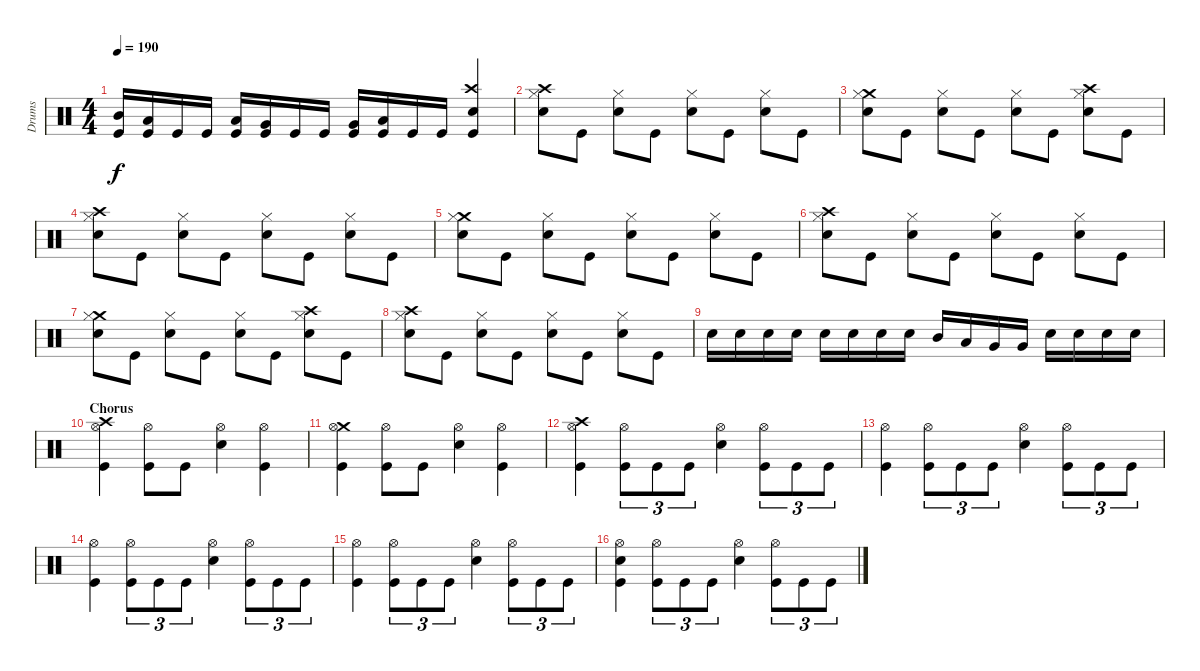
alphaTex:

\track ("Drums" "Drums") {instrument percussion}
\staff {score}
\articulation defaults
\ts (4 4)
\tempo 190
\clef neutral
\ks c
("Mid Tom (hit)" "Kick (hit)").16{dy f} ("Low Tom (hit)" "Kick (hit)").16 "Kick (hit)".16 "Kick (hit)".16 ("Low Tom (hit)" "Kick (hit)").16 ("Very Low Tom (hit)" "Kick (hit)").16 "Kick (hit)".16 "Kick (hit)".16 ("Very Low Tom (hit)" "Kick (hit)").16 ("Low Floor Tom (hit)" "Kick (hit)").16 "Kick (hit)".16 "Kick (hit)".16 ("Crash high (hit)" "Snare (hit) 2" "Kick (hit)").4 |
("Crash high (hit)" "Hi-Hat (closed)" "Snare (hit) 2").8 "Kick (hit)".8 ("Hi-Hat (closed)" "Snare (hit) 2").8 "Kick (hit)".8 ("Hi-Hat (closed)" "Snare (hit) 2").8 "Kick (hit)".8 ("Hi-Hat (closed)" "Snare (hit) 2").8 "Kick (hit)".8 |
("Crash medium (hit)" "Hi-Hat (closed)" "Snare (hit) 2").8 "Kick (hit)".8 ("Hi-Hat (closed)" "Snare (hit) 2").8 "Kick (hit)".8 ("Hi-Hat (closed)" "Snare (hit) 2").8 "Kick (hit)".8 ("Crash high (hit)" "Hi-Hat (closed)" "Snare (hit) 2").8 "Kick (hit)".8 |
("Crash high (hit)" "Hi-Hat (closed)" "Snare (hit) 2").8 "Kick (hit)".8 ("Hi-Hat (closed)" "Snare (hit) 2").8 "Kick (hit)".8 ("Hi-Hat (closed)" "Snare (hit) 2").8 "Kick (hit)".8 ("Hi-Hat (closed)" "Snare (hit) 2").8 "Kick (hit)".8 |
("Crash medium (hit)" "Hi-Hat (closed)" "Snare (hit) 2").8 "Kick (hit)".8 ("Hi-Hat (closed)" "Snare (hit) 2").8 "Kick (hit)".8 ("Hi-Hat (closed)" "Snare (hit) 2").8 "Kick (hit)".8 ("Hi-Hat (closed)" "Snare (hit) 2").8 "Kick (hit)".8 |
("Crash high (hit)" "Hi-Hat (closed)" "Snare (hit) 2").8 "Kick (hit)".8 ("Hi-Hat (closed)" "Snare (hit) 2").8 "Kick (hit)".8 ("Hi-Hat (closed)" "Snare (hit) 2").8 "Kick (hit)".8 ("Hi-Hat (closed)" "Snare (hit) 2").8 "Kick (hit)".8 |
("Crash medium (hit)" "Hi-Hat (closed)" "Snare (hit) 2").8 "Kick (hit)".8 ("Hi-Hat (closed)" "Snare (hit) 2").8 "Kick (hit)".8 ("Hi-Hat (closed)" "Snare (hit) 2").8 "Kick (hit)".8 ("Crash high (hit)" "Hi-Hat (closed)" "Snare (hit) 2").8 "Kick (hit)".8 |
("Crash high (hit)" "Hi-Hat (closed)" "Snare (hit) 2").8 "Kick (hit)".8 ("Hi-Hat (closed)" "Snare (hit) 2").8 "Kick (hit)".8 ("Hi-Hat (closed)" "Snare (hit) 2").8 "Kick (hit)".8 ("Hi-Hat (closed)" "Snare (hit) 2").8 "Kick (hit)".8 |
"Snare (hit) 2".16 "Snare (hit) 2".16 "Snare (hit) 2".16 "Snare (hit) 2".16 "Snare (hit) 2".16 "Snare (hit) 2".16 "Snare (hit) 2".16 "Snare (hit) 2".16 "Mid Tom (hit)".16 "Low Tom (hit)".16 "Very Low Tom (hit)".16 "Very Low Tom (hit)".16 "Snare (hit) 2".16 "Snare (hit) 2".16 "Snare (hit) 2".16 "Snare (hit) 2".16 |
\section ("" "Chorus")
("Crash high (hit)" "Hi-Hat (open)" "Kick (hit)").4 ("Hi-Hat (open)" "Kick (hit)").8 "Kick (hit)".8 ("Hi-Hat (open)" "Snare (hit) 2").4 ("Hi-Hat (open)" "Kick (hit)").4 |
("Crash medium (hit)" "Hi-Hat (open)" "Kick (hit)").4 ("Hi-Hat (open)" "Kick (hit)").8 "Kick (hit)".8 ("Hi-Hat (open)" "Snare (hit) 2").4 ("Hi-Hat (open)" "Kick (hit)").4 |
("Crash high (hit)" "Hi-Hat (open)" "Kick (hit)").4 ("Hi-Hat (open)" "Kick (hit)").8{tu (3 2)} "Kick (hit)".8{tu (3 2)} "Kick (hit)".8{tu (3 2)} ("Hi-Hat (open)" "Snare (hit) 2").4 ("Hi-Hat (open)" "Kick (hit)").8{tu (3 2)} "Kick (hit)".8{tu (3 2)} "Kick (hit)".8{tu (3 2)} |
("Hi-Hat (open)" "Kick (hit)").4 ("Hi-Hat (open)" "Kick (hit)").8{tu (3 2)} "Kick (hit)".8{tu (3 2)} "Kick (hit)".8{tu (3 2)} ("Hi-Hat (open)" "Snare (hit) 2").4 ("Hi-Hat (open)" "Kick (hit)").8{tu (3 2)} "Kick (hit)".8{tu (3 2)} "Kick (hit)".8{tu (3 2)} |
("Hi-Hat (open)" "Kick (hit)").4 ("Hi-Hat (open)" "Kick (hit)").8{tu (3 2)} "Kick (hit)".8{tu (3 2)} "Kick (hit)".8{tu (3 2)} ("Hi-Hat (open)" "Snare (hit) 2").4 ("Hi-Hat (open)" "Kick (hit)").8{tu (3 2)} "Kick (hit)".8{tu (3 2)} "Kick (hit)".8{tu (3 2)} |
("Hi-Hat (open)" "Kick (hit)").4 ("Hi-Hat (open)" "Kick (hit)").8{tu (3 2)} "Kick (hit)".8{tu (3 2)} "Kick (hit)".8{tu (3 2)} ("Hi-Hat (open)" "Snare (hit) 2").4 ("Hi-Hat (open)" "Kick (hit)").8{tu (3 2)} "Kick (hit)".8{tu (3 2)} "Kick (hit)".8{tu (3 2)} |
("Hi-Hat (open)" "Snare (hit) 2" "Kick (hit)").4 ("Hi-Hat (open)" "Kick (hit)").8{tu (3 2)} "Kick (hit)".8{tu (3 2)} "Kick (hit)".8{tu (3 2)} ("Hi-Hat (open)" "Snare (hit) 2").4 ("Hi-Hat (open)" "Kick (hit)").8{tu (3 2)} "Kick (hit)".8{tu (3 2)} "Kick (hit)".8{tu (3 2)}
